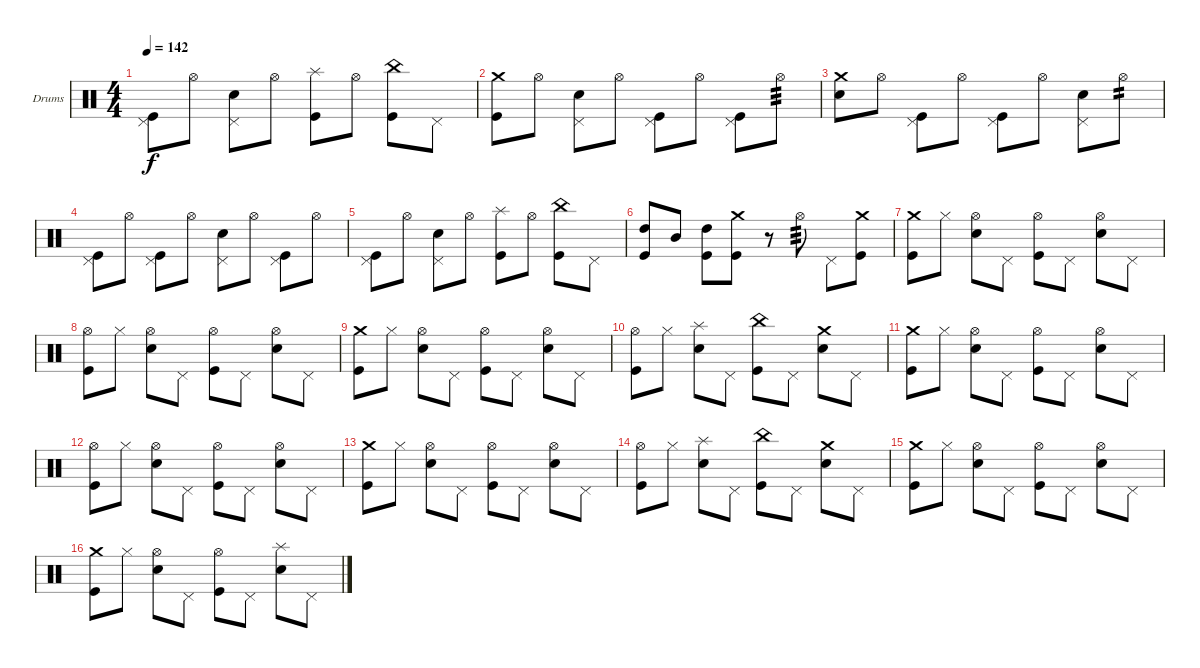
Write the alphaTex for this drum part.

\bracketExtendMode groupsimilarinstruments
\firstSystemTrackNameOrientation horizontal
\otherSystemsTrackNameOrientation horizontal
\track ("Drumkit" "Drums") {solo instrument percussion}
\staff {score}
\articulation defaults
\ts (4 4)
\tempo 142
\clef neutral
\ks c
("Pedal Hi-Hat (hit)" "Kick (hit)").8{dy f} "Hi-Hat (open)".8 ("Pedal Hi-Hat (hit)" "Snare (hit) 2").8 "Hi-Hat (open)".8 ("Splash (hit)" "Kick (hit)").8 "Hi-Hat (open)".8 ("China (hit)" "Kick (hit)").8 "Pedal Hi-Hat (hit)".8 |
("Kick (hit)" "Crash medium (hit)").8 "Hi-Hat (open)".8 ("Pedal Hi-Hat (hit)" "Snare (hit) 2").8 "Hi-Hat (open)".8 ("Pedal Hi-Hat (hit)" "Kick (hit)").8 "Hi-Hat (open)".8 ("Pedal Hi-Hat (hit)" "Kick (hit)").8 "Hi-Hat (open)".8{tp 3} |
("Crash medium (hit)" "Snare (hit) 2").8 "Hi-Hat (open)".8 ("Pedal Hi-Hat (hit)" "Kick (hit)").8 "Hi-Hat (open)".8 ("Pedal Hi-Hat (hit)" "Kick (hit)").8 "Hi-Hat (open)".8 ("Pedal Hi-Hat (hit)" "Snare (hit) 2").8 "Hi-Hat (open)".8{tp 2} |
("Pedal Hi-Hat (hit)" "Kick (hit)").8 "Hi-Hat (open)".8 ("Pedal Hi-Hat (hit)" "Kick (hit)").8 "Hi-Hat (open)".8 ("Pedal Hi-Hat (hit)" "Snare (hit) 2").8 "Hi-Hat (open)".8 ("Pedal Hi-Hat (hit)" "Kick (hit)").8 "Hi-Hat (open)".8 |
("Pedal Hi-Hat (hit)" "Kick (hit)").8 "Hi-Hat (open)".8 ("Pedal Hi-Hat (hit)" "Snare (hit) 2").8 "Hi-Hat (open)".8 ("Splash (hit)" "Kick (hit)").8 "Hi-Hat (open)".8 ("China (hit)" "Kick (hit)").8 "Pedal Hi-Hat (hit)".8 |
("High Tom (hit)" "Kick (hit)").8 "Mid Tom (hit)".8 ("High Tom (hit)" "Kick (hit)").8 ("Kick (hit)" "Crash medium (hit)").8 r.8 "Hi-Hat (open)".8{tp 3} "Pedal Hi-Hat (hit)".8 ("Crash medium (hit)" "Kick (hit)").8 |
("Crash medium (hit)" "Kick (hit)").8 "Hi-Hat (closed)".8 ("Hi-Hat (open)" "Snare (hit) 2").8 "Pedal Hi-Hat (hit)".8 ("Hi-Hat (open)" "Kick (hit)").8 "Pedal Hi-Hat (hit)".8 ("Hi-Hat (open)" "Snare (hit) 2").8 "Pedal Hi-Hat (hit)".8 |
("Hi-Hat (open)" "Kick (hit)").8 "Hi-Hat (closed)".8 ("Hi-Hat (open)" "Snare (hit) 2").8 "Pedal Hi-Hat (hit)".8 ("Hi-Hat (open)" "Kick (hit)").8 "Pedal Hi-Hat (hit)".8 ("Hi-Hat (open)" "Snare (hit) 2").8 "Pedal Hi-Hat (hit)".8 |
("Crash medium (hit)" "Kick (hit)").8 "Hi-Hat (closed)".8 ("Hi-Hat (open)" "Snare (hit) 2").8 "Pedal Hi-Hat (hit)".8 ("Hi-Hat (open)" "Kick (hit)").8 "Pedal Hi-Hat (hit)".8 ("Hi-Hat (open)" "Snare (hit) 2").8 "Pedal Hi-Hat (hit)".8 |
("Hi-Hat (open)" "Kick (hit)").8 "Hi-Hat (closed)".8 ("Splash (hit)" "Snare (hit) 2").8 "Pedal Hi-Hat (hit)".8 ("China (hit)" "Kick (hit)").8 "Pedal Hi-Hat (hit)".8 ("Crash medium (hit)" "Snare (hit) 2").8 "Pedal Hi-Hat (hit)".8 |
("Crash medium (hit)" "Kick (hit)").8 "Hi-Hat (closed)".8 ("Hi-Hat (open)" "Snare (hit) 2").8 "Pedal Hi-Hat (hit)".8 ("Hi-Hat (open)" "Kick (hit)").8 "Pedal Hi-Hat (hit)".8 ("Hi-Hat (open)" "Snare (hit) 2").8 "Pedal Hi-Hat (hit)".8 |
("Hi-Hat (open)" "Kick (hit)").8 "Hi-Hat (closed)".8 ("Hi-Hat (open)" "Snare (hit) 2").8 "Pedal Hi-Hat (hit)".8 ("Hi-Hat (open)" "Kick (hit)").8 "Pedal Hi-Hat (hit)".8 ("Hi-Hat (open)" "Snare (hit) 2").8 "Pedal Hi-Hat (hit)".8 |
("Crash medium (hit)" "Kick (hit)").8 "Hi-Hat (closed)".8 ("Hi-Hat (open)" "Snare (hit) 2").8 "Pedal Hi-Hat (hit)".8 ("Hi-Hat (open)" "Kick (hit)").8 "Pedal Hi-Hat (hit)".8 ("Hi-Hat (open)" "Snare (hit) 2").8 "Pedal Hi-Hat (hit)".8 |
("Hi-Hat (open)" "Kick (hit)").8 "Hi-Hat (closed)".8 ("Splash (hit)" "Snare (hit) 2").8 "Pedal Hi-Hat (hit)".8 ("China (hit)" "Kick (hit)").8 "Pedal Hi-Hat (hit)".8 ("Crash medium (hit)" "Snare (hit) 2").8 "Pedal Hi-Hat (hit)".8 |
("Crash medium (hit)" "Kick (hit)").8 "Hi-Hat (closed)".8 ("Hi-Hat (open)" "Snare (hit) 2").8 "Pedal Hi-Hat (hit)".8 ("Hi-Hat (open)" "Kick (hit)").8 "Pedal Hi-Hat (hit)".8 ("Hi-Hat (open)" "Snare (hit) 2").8 "Pedal Hi-Hat (hit)".8 |
("Crash medium (hit)" "Kick (hit)").8 "Hi-Hat (closed)".8 ("Hi-Hat (open)" "Snare (hit) 2").8 "Pedal Hi-Hat (hit)".8 ("Hi-Hat (open)" "Kick (hit)").8 "Pedal Hi-Hat (hit)".8 ("Splash (hit)" "Snare (hit) 2").8 "Pedal Hi-Hat (hit)".8
